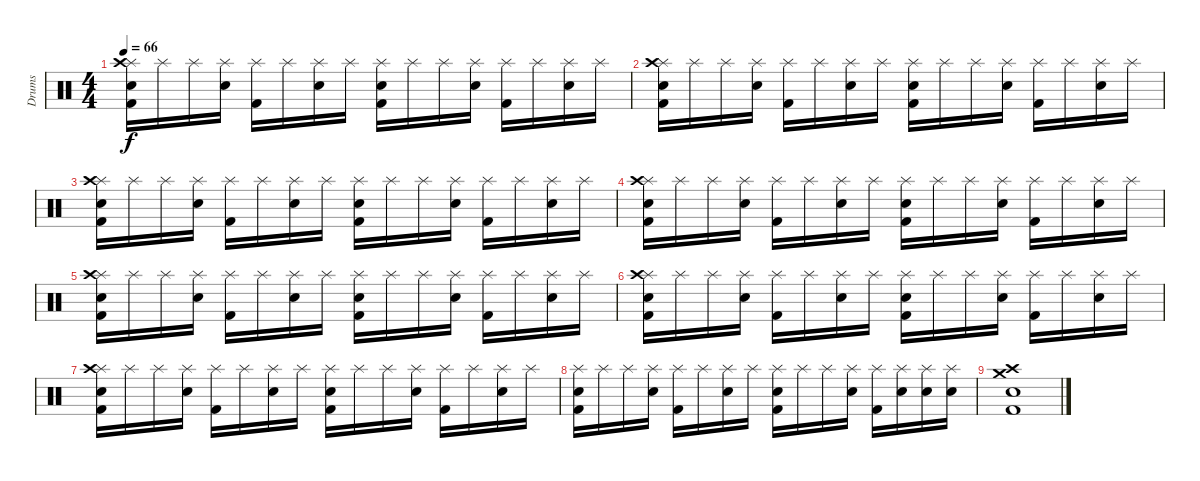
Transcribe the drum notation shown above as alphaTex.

\track ("Drums" "Drums") {instrument percussion}
\staff {score}
\articulation defaults
\ts (4 4)
\tempo 66
\clef neutral
\ks c
("Kick (hit) 2" "Splash (hit)" "Snare (hit) 2" "Crash high (hit)").16{dy f} "Splash (hit)".16 "Splash (hit)".16 ("Splash (hit)" "Snare (hit) 2").16 ("Kick (hit) 2" "Splash (hit)").16 "Splash (hit)".16 ("Splash (hit)" "Snare (hit) 2").16 "Splash (hit)".16 ("Kick (hit) 2" "Splash (hit)" "Snare (hit) 2").16 "Splash (hit)".16 "Splash (hit)".16 ("Splash (hit)" "Snare (hit) 2").16 ("Kick (hit) 2" "Splash (hit)").16 "Splash (hit)".16 ("Splash (hit)" "Snare (hit) 2").16 "Splash (hit)".16 |
("Kick (hit) 2" "Splash (hit)" "Snare (hit) 2" "Crash high (hit)").16 "Splash (hit)".16 "Splash (hit)".16 ("Splash (hit)" "Snare (hit) 2").16 ("Kick (hit) 2" "Splash (hit)").16 "Splash (hit)".16 ("Splash (hit)" "Snare (hit) 2").16 "Splash (hit)".16 ("Kick (hit) 2" "Splash (hit)" "Snare (hit) 2").16 "Splash (hit)".16 "Splash (hit)".16 ("Splash (hit)" "Snare (hit) 2").16 ("Kick (hit) 2" "Splash (hit)").16 "Splash (hit)".16 ("Splash (hit)" "Snare (hit) 2").16 "Splash (hit)".16 |
("Kick (hit) 2" "Splash (hit)" "Snare (hit) 2" "Crash high (hit)").16 "Splash (hit)".16 "Splash (hit)".16 ("Splash (hit)" "Snare (hit) 2").16 ("Kick (hit) 2" "Splash (hit)").16 "Splash (hit)".16 ("Splash (hit)" "Snare (hit) 2").16 "Splash (hit)".16 ("Kick (hit) 2" "Splash (hit)" "Snare (hit) 2").16 "Splash (hit)".16 "Splash (hit)".16 ("Splash (hit)" "Snare (hit) 2").16 ("Kick (hit) 2" "Splash (hit)").16 "Splash (hit)".16 ("Splash (hit)" "Snare (hit) 2").16 "Splash (hit)".16 |
("Kick (hit) 2" "Splash (hit)" "Snare (hit) 2" "Crash high (hit)").16 "Splash (hit)".16 "Splash (hit)".16 ("Splash (hit)" "Snare (hit) 2").16 ("Kick (hit) 2" "Splash (hit)").16 "Splash (hit)".16 ("Splash (hit)" "Snare (hit) 2").16 "Splash (hit)".16 ("Kick (hit) 2" "Splash (hit)" "Snare (hit) 2").16 "Splash (hit)".16 "Splash (hit)".16 ("Splash (hit)" "Snare (hit) 2").16 ("Kick (hit) 2" "Splash (hit)").16 "Splash (hit)".16 ("Splash (hit)" "Snare (hit) 2").16 "Splash (hit)".16 |
("Kick (hit) 2" "Splash (hit)" "Snare (hit) 2" "Crash high (hit)").16 "Splash (hit)".16 "Splash (hit)".16 ("Splash (hit)" "Snare (hit) 2").16 ("Kick (hit) 2" "Splash (hit)").16 "Splash (hit)".16 ("Splash (hit)" "Snare (hit) 2").16 "Splash (hit)".16 ("Kick (hit) 2" "Splash (hit)" "Snare (hit) 2").16 "Splash (hit)".16 "Splash (hit)".16 ("Splash (hit)" "Snare (hit) 2").16 ("Kick (hit) 2" "Splash (hit)").16 "Splash (hit)".16 ("Splash (hit)" "Snare (hit) 2").16 "Splash (hit)".16 |
("Kick (hit) 2" "Splash (hit)" "Snare (hit) 2" "Crash high (hit)").16 "Splash (hit)".16 "Splash (hit)".16 ("Splash (hit)" "Snare (hit) 2").16 ("Kick (hit) 2" "Splash (hit)").16 "Splash (hit)".16 ("Splash (hit)" "Snare (hit) 2").16 "Splash (hit)".16 ("Kick (hit) 2" "Splash (hit)" "Snare (hit) 2").16 "Splash (hit)".16 "Splash (hit)".16 ("Splash (hit)" "Snare (hit) 2").16 ("Kick (hit) 2" "Splash (hit)").16 "Splash (hit)".16 ("Splash (hit)" "Snare (hit) 2").16 "Splash (hit)".16 |
("Kick (hit) 2" "Splash (hit)" "Snare (hit) 2" "Crash high (hit)").16 "Splash (hit)".16 "Splash (hit)".16 ("Splash (hit)" "Snare (hit) 2").16 ("Kick (hit) 2" "Splash (hit)").16 "Splash (hit)".16 ("Splash (hit)" "Snare (hit) 2").16 "Splash (hit)".16 ("Kick (hit) 2" "Splash (hit)" "Snare (hit) 2").16 "Splash (hit)".16 "Splash (hit)".16 ("Splash (hit)" "Snare (hit) 2").16 ("Kick (hit) 2" "Splash (hit)").16 "Splash (hit)".16 ("Splash (hit)" "Snare (hit) 2").16 "Splash (hit)".16 |
("Kick (hit) 2" "Splash (hit)" "Snare (hit) 2").16 "Splash (hit)".16 "Splash (hit)".16 ("Splash (hit)" "Snare (hit) 2").16 ("Kick (hit) 2" "Splash (hit)").16 "Splash (hit)".16 ("Splash (hit)" "Snare (hit) 2").16 "Splash (hit)".16 ("Kick (hit) 2" "Splash (hit)" "Snare (hit) 2").16 "Splash (hit)".16 "Splash (hit)".16 ("Splash (hit)" "Snare (hit) 2").16 ("Kick (hit) 2" "Splash (hit)").16 ("Splash (hit)" "Snare (hit) 2").16 ("Splash (hit)" "Snare (hit) 2").16 ("Splash (hit)" "Snare (hit) 2").16 |
("Crash high (hit)" "Crash medium (hit)" "Snare (hit) 2" "Kick (hit) 2").1
